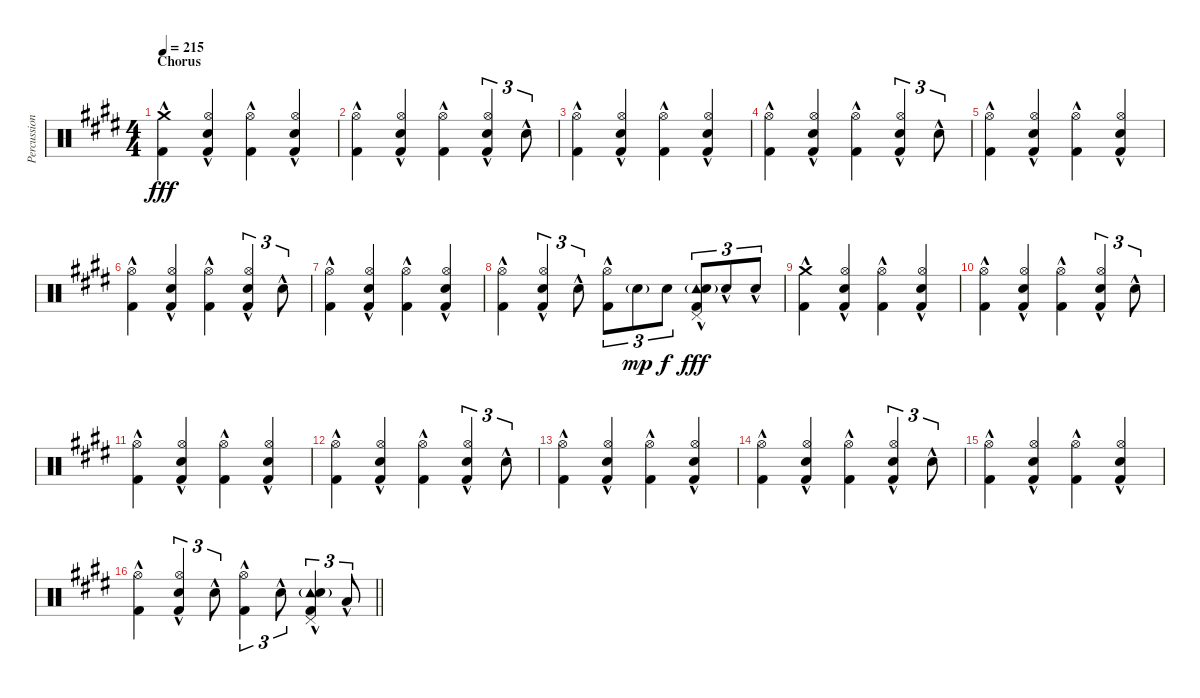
\track ("Percussion" "Percussion") {instrument percussion}
\staff {score}
\articulation defaults
\ts (4 4)
\section ("" "Chorus")
\tempo 215
\clef neutral
\ks e
("Crash medium (hit)" "Kick (hit) 2"{hac}).4{dy fff} ("Hi-Hat (open)" "Electric Snare (hit)"{hac} "Kick (hit) 2"{hac}).4 ("Hi-Hat (open)" "Kick (hit) 2"{hac}).4 ("Hi-Hat (open)" "Electric Snare (hit)"{hac} "Kick (hit) 2"{hac}).4 |
("Hi-Hat (open)" "Kick (hit) 2"{hac}).4 ("Hi-Hat (open)" "Electric Snare (hit)"{hac} "Kick (hit) 2"{hac}).4 ("Hi-Hat (open)" "Kick (hit) 2"{hac}).4 ("Hi-Hat (open)" "Electric Snare (hit)"{hac} "Kick (hit) 2"{hac}).4{tu (3 2)} "Electric Snare (hit)"{hac}.8{tu (3 2)} |
("Hi-Hat (open)" "Kick (hit) 2"{hac}).4 ("Hi-Hat (open)" "Electric Snare (hit)"{hac} "Kick (hit) 2"{hac}).4 ("Hi-Hat (open)" "Kick (hit) 2"{hac}).4 ("Hi-Hat (open)" "Electric Snare (hit)"{hac} "Kick (hit) 2"{hac}).4 |
("Hi-Hat (open)" "Kick (hit) 2"{hac}).4 ("Hi-Hat (open)" "Electric Snare (hit)"{hac} "Kick (hit) 2"{hac}).4 ("Hi-Hat (open)" "Kick (hit) 2"{hac}).4 ("Hi-Hat (open)" "Electric Snare (hit)"{hac} "Kick (hit) 2"{hac}).4{tu (3 2)} "Electric Snare (hit)"{hac}.8{tu (3 2)} |
("Hi-Hat (open)" "Kick (hit) 2"{hac}).4 ("Hi-Hat (open)" "Electric Snare (hit)"{hac} "Kick (hit) 2"{hac}).4 ("Hi-Hat (open)" "Kick (hit) 2"{hac}).4 ("Hi-Hat (open)" "Electric Snare (hit)"{hac} "Kick (hit) 2"{hac}).4 |
("Hi-Hat (open)" "Kick (hit) 2"{hac}).4 ("Hi-Hat (open)" "Electric Snare (hit)"{hac} "Kick (hit) 2"{hac}).4 ("Hi-Hat (open)" "Kick (hit) 2"{hac}).4 ("Hi-Hat (open)" "Electric Snare (hit)"{hac} "Kick (hit) 2"{hac}).4{tu (3 2)} "Electric Snare (hit)"{hac}.8{tu (3 2)} |
("Hi-Hat (open)" "Kick (hit) 2"{hac}).4 ("Hi-Hat (open)" "Electric Snare (hit)"{hac} "Kick (hit) 2"{hac}).4 ("Hi-Hat (open)" "Kick (hit) 2"{hac}).4 ("Hi-Hat (open)" "Electric Snare (hit)"{hac} "Kick (hit) 2"{hac}).4 |
("Hi-Hat (open)" "Kick (hit) 2"{hac}).4 ("Hi-Hat (open)" "Electric Snare (hit)"{hac} "Kick (hit) 2"{hac}).4{tu (3 2)} "Electric Snare (hit)"{hac}.8{tu (3 2)} ("Hi-Hat (open)" "Kick (hit) 2"{hac}).8{tu (3 2)} "Electric Snare (hit)"{g}.8{tu (3 2) dy mp} "Electric Snare (hit)".8{tu (3 2) dy f} ("Tambourine (hit)"{g} "Pedal Hi-Hat (hit)" "Electric Snare (hit)"{hac} "Kick (hit) 2"{hac}).8{tu (3 2) dy fff} "Electric Snare (hit)"{hac}.8{tu (3 2)} "Electric Snare (hit)"{hac}.8{tu (3 2)} |
("Crash medium (hit)" "Kick (hit) 2"{hac}).4 ("Hi-Hat (open)" "Electric Snare (hit)"{hac} "Kick (hit) 2"{hac}).4 ("Hi-Hat (open)" "Kick (hit) 2"{hac}).4 ("Hi-Hat (open)" "Electric Snare (hit)"{hac} "Kick (hit) 2").4 |
("Hi-Hat (open)" "Kick (hit) 2"{hac}).4 ("Hi-Hat (open)" "Electric Snare (hit)"{hac} "Kick (hit) 2"{hac}).4 ("Hi-Hat (open)" "Kick (hit) 2"{hac}).4 ("Hi-Hat (open)" "Electric Snare (hit)"{hac} "Kick (hit) 2"{hac}).4{tu (3 2)} "Electric Snare (hit)"{hac}.8{tu (3 2)} |
("Hi-Hat (open)" "Kick (hit) 2"{hac}).4 ("Hi-Hat (open)" "Electric Snare (hit)"{hac} "Kick (hit) 2"{hac}).4 ("Hi-Hat (open)" "Kick (hit) 2"{hac}).4 ("Hi-Hat (open)" "Electric Snare (hit)"{hac} "Kick (hit) 2"{hac}).4 |
("Hi-Hat (open)" "Kick (hit) 2"{hac}).4 ("Hi-Hat (open)" "Electric Snare (hit)"{hac} "Kick (hit) 2"{hac}).4 ("Hi-Hat (open)" "Kick (hit) 2"{hac}).4 ("Hi-Hat (open)" "Electric Snare (hit)"{hac} "Kick (hit) 2"{hac}).4{tu (3 2)} "Electric Snare (hit)"{hac}.8{tu (3 2)} |
("Hi-Hat (open)" "Kick (hit) 2"{hac}).4 ("Hi-Hat (open)" "Electric Snare (hit)"{hac} "Kick (hit) 2"{hac}).4 ("Hi-Hat (open)" "Kick (hit) 2"{hac}).4 ("Hi-Hat (open)" "Electric Snare (hit)"{hac} "Kick (hit) 2"{hac}).4 |
("Hi-Hat (open)" "Kick (hit) 2"{hac}).4 ("Hi-Hat (open)" "Electric Snare (hit)"{hac} "Kick (hit) 2"{hac}).4 ("Hi-Hat (open)" "Kick (hit) 2"{hac}).4 ("Hi-Hat (open)" "Electric Snare (hit)"{hac} "Kick (hit) 2"{hac}).4{tu (3 2)} "Electric Snare (hit)"{hac}.8{tu (3 2)} |
("Hi-Hat (open)" "Kick (hit) 2"{hac}).4 ("Hi-Hat (open)" "Electric Snare (hit)"{hac} "Kick (hit) 2"{hac}).4 ("Hi-Hat (open)" "Kick (hit) 2"{hac}).4 ("Hi-Hat (open)" "Electric Snare (hit)"{hac} "Kick (hit) 2"{hac}).4 |
\barLineRight lightlight
("Hi-Hat (open)" "Kick (hit) 2"{hac}).4 ("Hi-Hat (open)" "Electric Snare (hit)"{hac} "Kick (hit) 2"{hac}).4{tu (3 2)} "Electric Snare (hit)"{hac}.8{tu (3 2)} ("Hi-Hat (open)" "Kick (hit) 2"{hac}).4{tu (3 2)} "Electric Snare (hit)"{hac}.8{tu (3 2)} ("Tambourine (hit)"{g} "Pedal Hi-Hat (hit)" "Electric Snare (hit)"{hac} "Kick (hit) 2"{hac}).4{tu (3 2)} "Low Tom (hit)"{hac}.8{tu (3 2)}
